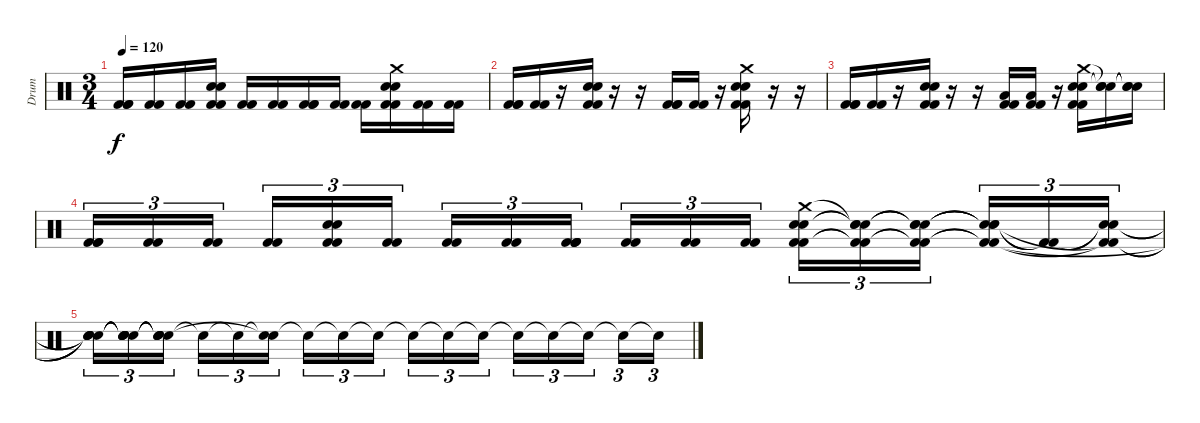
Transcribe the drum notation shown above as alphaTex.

\track ("Drum" "Drum") {instrument percussion}
\staff {score}
\articulation defaults
\ts (3 4)
\tempo 120
\clef neutral
\ks c
("Kick (hit) 2" "Kick (hit) 2" "Kick (hit) 2").16{dy f} ("Kick (hit) 2" "Kick (hit) 2").16 ("Kick (hit) 2" "Kick (hit) 2").16 ("Electric Snare (hit)" "Electric Snare (hit)" "Kick (hit) 2" "Kick (hit) 2").16 ("Kick (hit) 2" "Kick (hit) 2").16 ("Kick (hit) 2" "Kick (hit) 2").16 ("Kick (hit) 2" "Kick (hit) 2" "Kick (hit) 2").16 ("Kick (hit) 2" "Kick (hit) 2").16 ("Kick (hit) 2" "Kick (hit) 2").16 ("Electric Snare (hit)" "Electric Snare (hit)" "Crash medium (hit)" "Kick (hit) 2" "Kick (hit) 2").16 ("Kick (hit) 2" "Kick (hit) 2").16 ("Kick (hit) 2" "Kick (hit) 2").16 |
("Kick (hit) 2" "Kick (hit) 2" "Kick (hit) 2").16 ("Kick (hit) 2" "Kick (hit) 2").16 r.16 ("Electric Snare (hit)" "Electric Snare (hit)" "Kick (hit) 2" "Kick (hit) 2").16 r.16 r.16 ("Kick (hit) 2" "Kick (hit) 2" "Kick (hit) 2").16 ("Kick (hit) 2" "Kick (hit) 2").16 r.16 ("Electric Snare (hit)" "Electric Snare (hit)" "Crash medium (hit)" "Kick (hit) 2" "Kick (hit) 2").16 r.16 r.16 |
("Kick (hit) 2" "Kick (hit) 2" "Kick (hit) 2").16 ("Kick (hit) 2" "Kick (hit) 2").16 r.16 ("Electric Snare (hit)" "Electric Snare (hit)" "Kick (hit) 2" "Kick (hit) 2").16 r.16 r.16 ("Low Tom (hit)" "Kick (hit) 2" "Kick (hit) 2").16 ("Low Tom (hit)" "Kick (hit) 2" "Kick (hit) 2").16 r.16 ("Electric Snare (hit)" "Electric Snare (hit)" "Crash medium (hit)" "Kick (hit) 2" "Kick (hit) 2").16 ("Snare (hit)"{t} "Snare (hit)"{t} "Snare (hit)"{t}).16 ("Snare (hit)"{t} "Snare (hit)"{t} "Snare (hit)"{t}).16 |
("Kick (hit) 2" "Kick (hit) 2" "Kick (hit) 2").16{tu (3 2)} ("Kick (hit) 2" "Kick (hit) 2").16{tu (3 2)} ("Kick (hit) 2" "Kick (hit) 2").16{tu (3 2)} ("Kick (hit) 2" "Kick (hit) 2").16{tu (3 2)} ("Electric Snare (hit)" "Electric Snare (hit)" "Kick (hit) 2" "Kick (hit) 2").16{tu (3 2)} ("Kick (hit) 2" "Kick (hit) 2").16{tu (3 2)} ("Kick (hit) 2" "Kick (hit) 2").16{tu (3 2)} ("Kick (hit) 2" "Kick (hit) 2").16{tu (3 2)} ("Kick (hit) 2" "Kick (hit) 2" "Kick (hit) 2" "Kick (hit) 2").16{tu (3 2)} ("Kick (hit) 2" "Kick (hit) 2").16{tu (3 2)} ("Kick (hit) 2" "Kick (hit) 2").16{tu (3 2)} ("Kick (hit) 2" "Kick (hit) 2").16{tu (3 2)} ("Electric Snare (hit)" "Crash medium (hit)" "Electric Snare (hit)" "Kick (hit) 2" "Kick (hit) 2").16{tu (3 2)} ("Snare (hit)"{t} "Snare (hit)"{t} "Snare (hit)"{t} "Kick (hit) 2"{t} "Kick (hit) 2"{t}).16{tu (3 2)} ("Electric Snare (hit)"{t} "Snare (hit)"{t} "Electric Snare (hit)"{t} "Kick (hit) 2"{t} "Kick (hit) 2"{t}).16{tu (3 2)} ("Snare (hit)"{t} "Snare (hit)"{t} "Snare (hit)"{t} "Kick (hit) 2"{t} "Kick (hit) 2"{t}).16{tu (3 2)} ("Kick (hit) 2"{t} "Kick (hit) 2"{t}).16{tu (3 2)} ("Snare (hit)"{t} "Snare (hit)"{t} "Kick (hit) 2"{t} "Kick (hit) 2"{t}).16{tu (3 2)} |
("Snare (hit)"{t} "Snare (hit)"{t} "Snare (hit)"{t} "Snare (hit)"{t} "Snare (hit)"{t}).16{tu (3 2)} ("Snare (hit)"{t} "Snare (hit)"{t} "Snare (hit)"{t} "Snare (hit)"{t} "Snare (hit)"{t} "Snare (hit)").16{tu (3 2)} ("Snare (hit)"{t} "Snare (hit)"{t} "Snare (hit)"{t} "Snare (hit)"{t} "Snare (hit)"{t}).16{tu (3 2)} "Snare (hit)"{t}.16{tu (3 2)} "Snare (hit)"{t}.16{tu (3 2)} ("Snare (hit)"{t} "Snare (hit)"{t}).16{tu (3 2)} "Snare (hit)"{t}.16{tu (3 2)} "Snare (hit)"{t}.16{tu (3 2)} "Snare (hit)"{t}.16{tu (3 2)} "Snare (hit)"{t}.16{tu (3 2)} "Snare (hit)"{t}.16{tu (3 2)} "Snare (hit)"{t}.16{tu (3 2)} "Snare (hit)"{t}.16{tu (3 2)} "Snare (hit)"{t}.16{tu (3 2)} "Snare (hit)"{t}.16{tu (3 2)} "Snare (hit)"{t}.16{tu (3 2)} "Snare (hit)"{t}.16{tu (3 2)}
